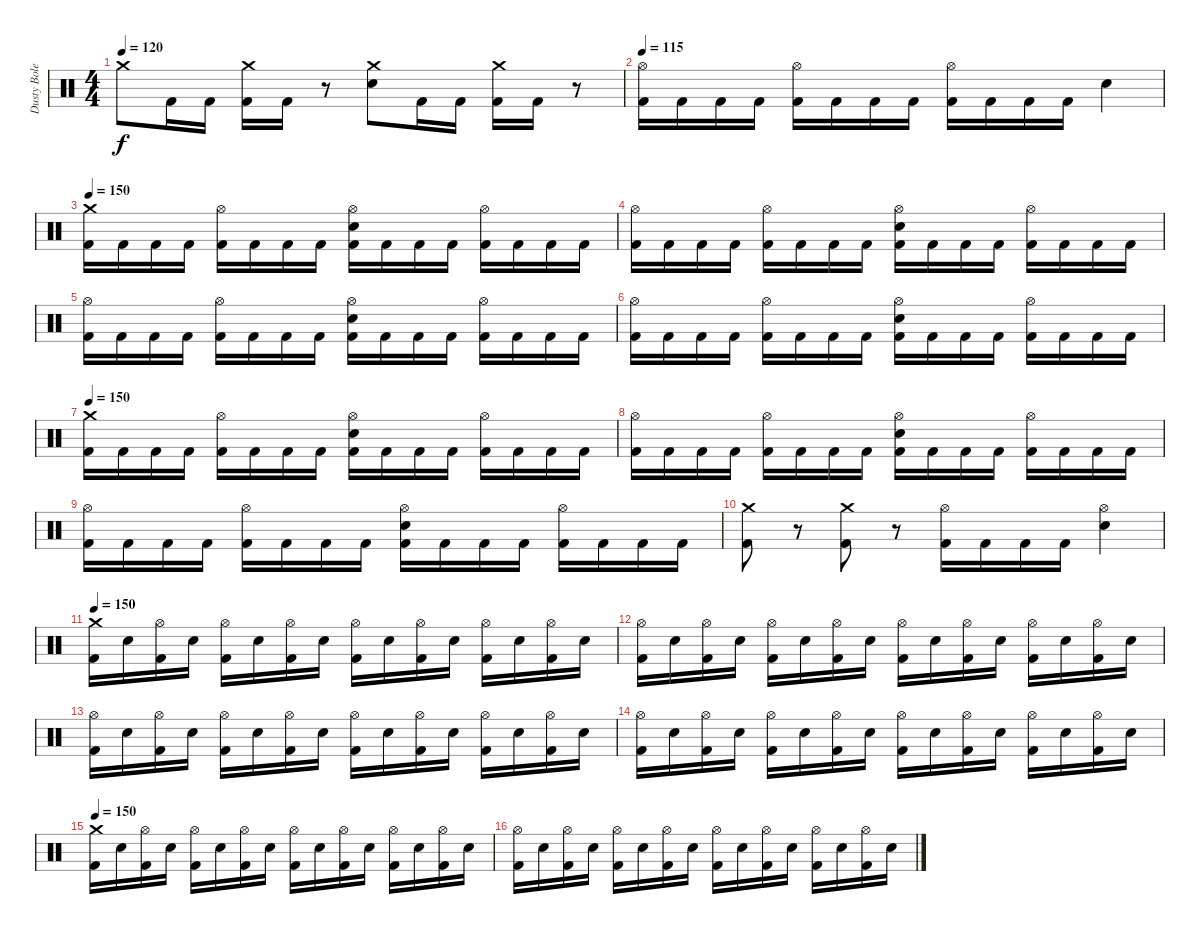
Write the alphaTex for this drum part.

\track ("Dusty Boles" "Dusty Bole") {instrument percussion}
\staff {score}
\articulation defaults
\ts (4 4)
\tempo 120
\clef neutral
\ks c "Crash medium (hit)".8{dy f} "Kick (hit) 2".16 "Kick (hit) 2".16
("Crash medium (hit)" "Kick (hit) 2").16 "Kick (hit) 2".16 r.8 ("Crash medium (hit)" "Electric Snare (hit)").8 "Kick (hit) 2".16 "Kick (hit) 2".16 ("Crash medium (hit)" "Kick (hit) 2").16 "Kick (hit) 2".16 r.8 |
\tempo 115
("Hi-Hat (open)" "Kick (hit) 2").16 "Kick (hit) 2".16 "Kick (hit) 2".16 "Kick (hit) 2".16 ("Hi-Hat (open)" "Kick (hit) 2").16 "Kick (hit) 2".16 "Kick (hit) 2".16 "Kick (hit) 2".16 ("Hi-Hat (open)" "Kick (hit) 2").16 "Kick (hit) 2".16 "Kick (hit) 2".16 "Kick (hit) 2".16 "Electric Snare (hit)".4 |
\tempo 145
\tempo 150
("Crash medium (hit)" "Kick (hit) 2").16 "Kick (hit) 2".16 "Kick (hit) 2".16 "Kick (hit) 2".16 ("Hi-Hat (open)" "Kick (hit) 2").16 "Kick (hit) 2".16 "Kick (hit) 2".16 "Kick (hit) 2".16 ("Hi-Hat (open)" "Electric Snare (hit)" "Kick (hit) 2").16 "Kick (hit) 2".16 "Kick (hit) 2".16 "Kick (hit) 2".16 ("Hi-Hat (open)" "Kick (hit) 2").16 "Kick (hit) 2".16 "Kick (hit) 2".16 "Kick (hit) 2".16 |
("Hi-Hat (open)" "Kick (hit) 2").16 "Kick (hit) 2".16 "Kick (hit) 2".16 "Kick (hit) 2".16 ("Hi-Hat (open)" "Kick (hit) 2").16 "Kick (hit) 2".16 "Kick (hit) 2".16 "Kick (hit) 2".16 ("Hi-Hat (open)" "Electric Snare (hit)" "Kick (hit) 2").16 "Kick (hit) 2".16 "Kick (hit) 2".16 "Kick (hit) 2".16 ("Hi-Hat (open)" "Kick (hit) 2").16 "Kick (hit) 2".16 "Kick (hit) 2".16 "Kick (hit) 2".16 |
("Hi-Hat (open)" "Kick (hit) 2").16 "Kick (hit) 2".16 "Kick (hit) 2".16 "Kick (hit) 2".16 ("Hi-Hat (open)" "Kick (hit) 2").16 "Kick (hit) 2".16 "Kick (hit) 2".16 "Kick (hit) 2".16 ("Hi-Hat (open)" "Electric Snare (hit)" "Kick (hit) 2").16 "Kick (hit) 2".16 "Kick (hit) 2".16 "Kick (hit) 2".16 ("Hi-Hat (open)" "Kick (hit) 2").16 "Kick (hit) 2".16 "Kick (hit) 2".16 "Kick (hit) 2".16 |
("Hi-Hat (open)" "Kick (hit) 2").16 "Kick (hit) 2".16 "Kick (hit) 2".16 "Kick (hit) 2".16 ("Hi-Hat (open)" "Kick (hit) 2").16 "Kick (hit) 2".16 "Kick (hit) 2".16 "Kick (hit) 2".16 ("Hi-Hat (open)" "Electric Snare (hit)" "Kick (hit) 2").16 "Kick (hit) 2".16 "Kick (hit) 2".16 "Kick (hit) 2".16 ("Hi-Hat (open)" "Kick (hit) 2").16 "Kick (hit) 2".16 "Kick (hit) 2".16 "Kick (hit) 2".16 |
\tempo 140
\tempo 150
("Crash medium (hit)" "Kick (hit) 2").16 "Kick (hit) 2".16 "Kick (hit) 2".16 "Kick (hit) 2".16 ("Hi-Hat (open)" "Kick (hit) 2").16 "Kick (hit) 2".16 "Kick (hit) 2".16 "Kick (hit) 2".16 ("Hi-Hat (open)" "Electric Snare (hit)" "Kick (hit) 2").16 "Kick (hit) 2".16 "Kick (hit) 2".16 "Kick (hit) 2".16 ("Hi-Hat (open)" "Kick (hit) 2").16 "Kick (hit) 2".16 "Kick (hit) 2".16 "Kick (hit) 2".16 |
("Hi-Hat (open)" "Kick (hit) 2").16 "Kick (hit) 2".16 "Kick (hit) 2".16 "Kick (hit) 2".16 ("Hi-Hat (open)" "Kick (hit) 2").16 "Kick (hit) 2".16 "Kick (hit) 2".16 "Kick (hit) 2".16 ("Hi-Hat (open)" "Electric Snare (hit)" "Kick (hit) 2").16 "Kick (hit) 2".16 "Kick (hit) 2".16 "Kick (hit) 2".16 ("Hi-Hat (open)" "Kick (hit) 2").16 "Kick (hit) 2".16 "Kick (hit) 2".16 "Kick (hit) 2".16 |
("Hi-Hat (open)" "Kick (hit) 2").16 "Kick (hit) 2".16 "Kick (hit) 2".16 "Kick (hit) 2".16 ("Hi-Hat (open)" "Kick (hit) 2").16 "Kick (hit) 2".16 "Kick (hit) 2".16 "Kick (hit) 2".16 ("Hi-Hat (open)" "Electric Snare (hit)" "Kick (hit) 2").16 "Kick (hit) 2".16 "Kick (hit) 2".16 "Kick (hit) 2".16 ("Hi-Hat (open)" "Kick (hit) 2").16 "Kick (hit) 2".16 "Kick (hit) 2".16 "Kick (hit) 2".16 |
("Crash medium (hit)" "Kick (hit) 2").8 r.8{volume 0} ("Crash medium (hit)" "Kick (hit) 2").8{volume 16} r.8{volume 0} ("Hi-Hat (open)" "Kick (hit) 2").16{volume 16} "Kick (hit) 2".16 "Kick (hit) 2".16 "Kick (hit) 2".16 ("Hi-Hat (open)" "Electric Snare (hit)").4 |
\tempo 140
\tempo 150
("Crash medium (hit)" "Kick (hit) 2").16 "Electric Snare (hit)".16 ("Hi-Hat (open)" "Kick (hit) 2").16 "Electric Snare (hit)".16 ("Hi-Hat (open)" "Kick (hit) 2").16 "Electric Snare (hit)".16 ("Hi-Hat (open)" "Kick (hit) 2").16 "Electric Snare (hit)".16 ("Hi-Hat (open)" "Kick (hit) 2").16 "Electric Snare (hit)".16 ("Hi-Hat (open)" "Kick (hit) 2").16 "Electric Snare (hit)".16 ("Hi-Hat (open)" "Kick (hit) 2").16 "Electric Snare (hit)".16 ("Hi-Hat (open)" "Kick (hit) 2").16 "Electric Snare (hit)".16 |
("Hi-Hat (open)" "Kick (hit) 2").16 "Electric Snare (hit)".16 ("Hi-Hat (open)" "Kick (hit) 2").16 "Electric Snare (hit)".16 ("Hi-Hat (open)" "Kick (hit) 2").16 "Electric Snare (hit)".16 ("Hi-Hat (open)" "Kick (hit) 2").16 "Electric Snare (hit)".16 ("Hi-Hat (open)" "Kick (hit) 2").16 "Electric Snare (hit)".16 ("Hi-Hat (open)" "Kick (hit) 2").16 "Electric Snare (hit)".16 ("Hi-Hat (open)" "Kick (hit) 2").16 "Electric Snare (hit)".16 ("Hi-Hat (open)" "Kick (hit) 2").16 "Electric Snare (hit)".16 |
("Hi-Hat (open)" "Kick (hit) 2").16 "Electric Snare (hit)".16 ("Hi-Hat (open)" "Kick (hit) 2").16 "Electric Snare (hit)".16 ("Hi-Hat (open)" "Kick (hit) 2").16 "Electric Snare (hit)".16 ("Hi-Hat (open)" "Kick (hit) 2").16 "Electric Snare (hit)".16 ("Hi-Hat (open)" "Kick (hit) 2").16 "Electric Snare (hit)".16 ("Hi-Hat (open)" "Kick (hit) 2").16 "Electric Snare (hit)".16 ("Hi-Hat (open)" "Kick (hit) 2").16 "Electric Snare (hit)".16 ("Hi-Hat (open)" "Kick (hit) 2").16 "Electric Snare (hit)".16 |
("Hi-Hat (open)" "Kick (hit) 2").16 "Electric Snare (hit)".16 ("Hi-Hat (open)" "Kick (hit) 2").16 "Electric Snare (hit)".16 ("Hi-Hat (open)" "Kick (hit) 2").16 "Electric Snare (hit)".16 ("Hi-Hat (open)" "Kick (hit) 2").16 "Electric Snare (hit)".16 ("Hi-Hat (open)" "Kick (hit) 2").16 "Electric Snare (hit)".16 ("Hi-Hat (open)" "Kick (hit) 2").16 "Electric Snare (hit)".16 ("Hi-Hat (open)" "Kick (hit) 2").16 "Electric Snare (hit)".16 ("Hi-Hat (open)" "Kick (hit) 2").16 "Electric Snare (hit)".16 |
\tempo 150
("Crash medium (hit)" "Kick (hit) 2").16 "Electric Snare (hit)".16 ("Hi-Hat (open)" "Kick (hit) 2").16 "Electric Snare (hit)".16 ("Hi-Hat (open)" "Kick (hit) 2").16 "Electric Snare (hit)".16 ("Hi-Hat (open)" "Kick (hit) 2").16 "Electric Snare (hit)".16 ("Hi-Hat (open)" "Kick (hit) 2").16 "Electric Snare (hit)".16 ("Hi-Hat (open)" "Kick (hit) 2").16 "Electric Snare (hit)".16 ("Hi-Hat (open)" "Kick (hit) 2").16 "Electric Snare (hit)".16 ("Hi-Hat (open)" "Kick (hit) 2").16 "Electric Snare (hit)".16 |
("Hi-Hat (open)" "Kick (hit) 2").16 "Electric Snare (hit)".16 ("Hi-Hat (open)" "Kick (hit) 2").16 "Electric Snare (hit)".16 ("Hi-Hat (open)" "Kick (hit) 2").16 "Electric Snare (hit)".16 ("Hi-Hat (open)" "Kick (hit) 2").16 "Electric Snare (hit)".16 ("Hi-Hat (open)" "Kick (hit) 2").16 "Electric Snare (hit)".16 ("Hi-Hat (open)" "Kick (hit) 2").16 "Electric Snare (hit)".16 ("Hi-Hat (open)" "Kick (hit) 2").16 "Electric Snare (hit)".16 ("Hi-Hat (open)" "Kick (hit) 2").16 "Electric Snare (hit)".16
